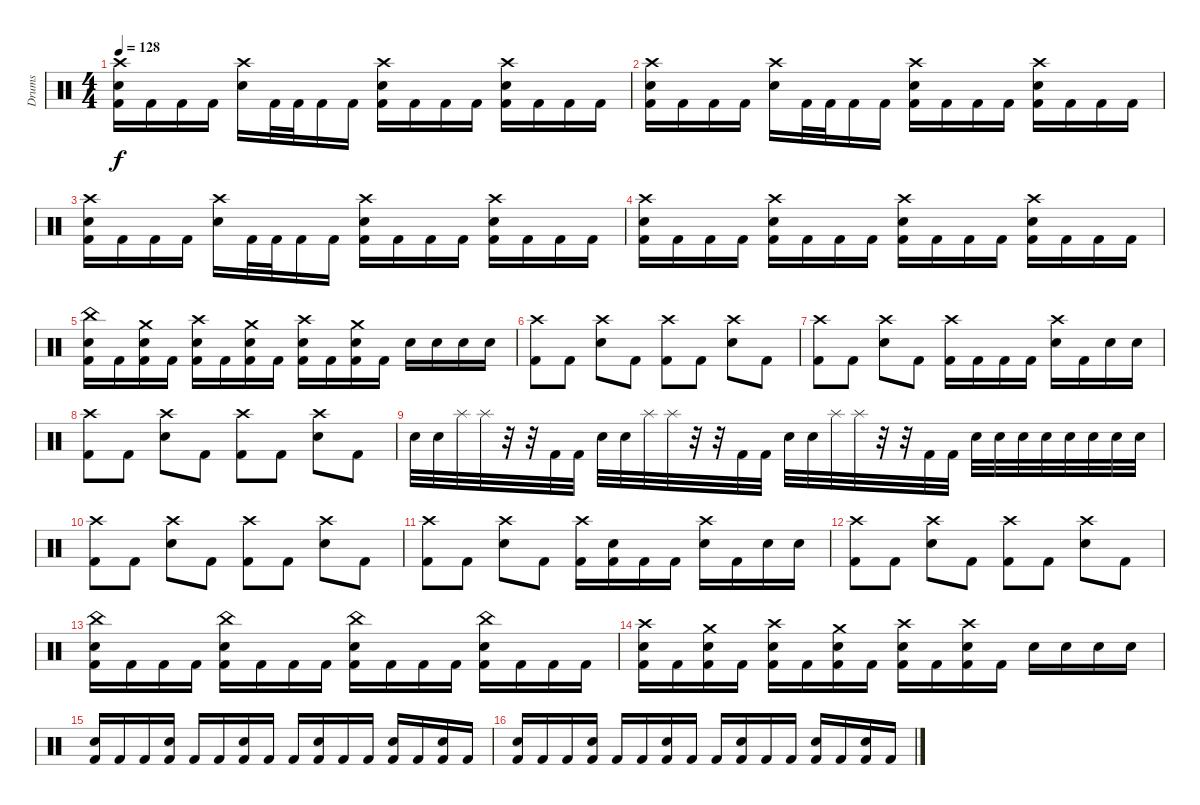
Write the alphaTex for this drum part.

\track ("Drums" "Drums") {instrument percussion}
\staff {score}
\articulation defaults
\ts (4 4)
\tempo 128
\clef neutral
\ks c
("Crash high (hit)" "Electric Snare (hit)" "Kick (hit) 2").16{dy f} "Kick (hit) 2".16 "Kick (hit) 2".16 "Kick (hit) 2".16 ("Crash high (hit)" "Electric Snare (hit)").16 "Kick (hit) 2".32 "Kick (hit) 2".32 "Kick (hit) 2".16 "Kick (hit) 2".16 ("Crash high (hit)" "Electric Snare (hit)" "Kick (hit) 2").16 "Kick (hit) 2".16 "Kick (hit) 2".16 "Kick (hit) 2".16 ("Crash high (hit)" "Electric Snare (hit)" "Kick (hit) 2").16 "Kick (hit) 2".16 "Kick (hit) 2".16 "Kick (hit) 2".16 |
("Crash high (hit)" "Electric Snare (hit)" "Kick (hit) 2").16 "Kick (hit) 2".16 "Kick (hit) 2".16 "Kick (hit) 2".16 ("Crash high (hit)" "Electric Snare (hit)").16 "Kick (hit) 2".32 "Kick (hit) 2".32 "Kick (hit) 2".16 "Kick (hit) 2".16 ("Crash high (hit)" "Electric Snare (hit)" "Kick (hit) 2").16 "Kick (hit) 2".16 "Kick (hit) 2".16 "Kick (hit) 2".16 ("Crash high (hit)" "Electric Snare (hit)" "Kick (hit) 2").16 "Kick (hit) 2".16 "Kick (hit) 2".16 "Kick (hit) 2".16 |
("Crash high (hit)" "Electric Snare (hit)" "Kick (hit) 2").16 "Kick (hit) 2".16 "Kick (hit) 2".16 "Kick (hit) 2".16 ("Crash high (hit)" "Electric Snare (hit)").16 "Kick (hit) 2".32 "Kick (hit) 2".32 "Kick (hit) 2".16 "Kick (hit) 2".16 ("Crash high (hit)" "Electric Snare (hit)" "Kick (hit) 2").16 "Kick (hit) 2".16 "Kick (hit) 2".16 "Kick (hit) 2".16 ("Crash high (hit)" "Electric Snare (hit)" "Kick (hit) 2").16 "Kick (hit) 2".16 "Kick (hit) 2".16 "Kick (hit) 2".16 |
("Crash high (hit)" "Electric Snare (hit)" "Kick (hit) 2").16 "Kick (hit) 2".16 "Kick (hit) 2".16 "Kick (hit) 2".16 ("Crash high (hit)" "Electric Snare (hit)" "Kick (hit) 2").16 "Kick (hit) 2".16 "Kick (hit) 2".16 "Kick (hit) 2".16 ("Crash high (hit)" "Electric Snare (hit)" "Kick (hit) 2").16 "Kick (hit) 2".16 "Kick (hit) 2".16 "Kick (hit) 2".16 ("Crash high (hit)" "Electric Snare (hit)" "Kick (hit) 2").16 "Kick (hit) 2".16 "Kick (hit) 2".16 "Kick (hit) 2".16 |
("China (hit)" "Electric Snare (hit)" "Kick (hit) 2").16 "Kick (hit) 2".16 ("Crash medium (hit)" "Electric Snare (hit)" "Kick (hit) 2").16 "Kick (hit) 2".16 ("Crash high (hit)" "Electric Snare (hit)" "Kick (hit) 2").16 "Kick (hit) 2".16 ("Crash medium (hit)" "Electric Snare (hit)" "Kick (hit) 2").16 "Kick (hit) 2".16 ("Crash high (hit)" "Electric Snare (hit)" "Kick (hit) 2").16 "Kick (hit) 2".16 ("Crash medium (hit)" "Electric Snare (hit)" "Kick (hit) 2").16 "Kick (hit) 2".16 "Electric Snare (hit)".16 "Electric Snare (hit)".16 "Electric Snare (hit)".16 "Electric Snare (hit)".16 |
("Crash high (hit)" "Kick (hit) 2").8 "Kick (hit) 2".8 ("Crash high (hit)" "Electric Snare (hit)").8 "Kick (hit) 2".8 ("Crash high (hit)" "Kick (hit) 2").8 "Kick (hit) 2".8 ("Crash high (hit)" "Electric Snare (hit)").8 "Kick (hit) 2".8 |
("Crash high (hit)" "Kick (hit) 2").8 "Kick (hit) 2".8 ("Crash high (hit)" "Electric Snare (hit)").8 "Kick (hit) 2".8 ("Crash high (hit)" "Kick (hit) 2").16 "Kick (hit) 2".16 "Kick (hit) 2".16 "Kick (hit) 2".16 ("Crash high (hit)" "Electric Snare (hit)").16 "Kick (hit) 2".16 "Electric Snare (hit)".16 "Electric Snare (hit)".16 |
("Crash high (hit)" "Kick (hit) 2").8 "Kick (hit) 2".8 ("Crash high (hit)" "Electric Snare (hit)").8 "Kick (hit) 2".8 ("Crash high (hit)" "Kick (hit) 2").8 "Kick (hit) 2".8 ("Crash high (hit)" "Electric Snare (hit)").8 "Kick (hit) 2".8 |
"Electric Snare (hit)".32 "Electric Snare (hit)".32 "Splash (hit)".32 "Splash (hit)".32 r.32 r.32 "Kick (hit) 2".32 "Kick (hit) 2".32 "Electric Snare (hit)".32 "Electric Snare (hit)".32 "Splash (hit)".32 "Splash (hit)".32 r.32 r.32 "Kick (hit) 2".32 "Kick (hit) 2".32 "Electric Snare (hit)".32 "Electric Snare (hit)".32 "Splash (hit)".32 "Splash (hit)".32 r.32 r.32 "Kick (hit) 2".32 "Kick (hit) 2".32 "Electric Snare (hit)".32 "Electric Snare (hit)".32 "Electric Snare (hit)".32 "Electric Snare (hit)".32 "Electric Snare (hit)".32 "Electric Snare (hit)".32 "Electric Snare (hit)".32 "Electric Snare (hit)".32 |
("Crash high (hit)" "Kick (hit) 2").8 "Kick (hit) 2".8 ("Crash high (hit)" "Electric Snare (hit)").8 "Kick (hit) 2".8 ("Crash high (hit)" "Kick (hit) 2").8 "Kick (hit) 2".8 ("Crash high (hit)" "Electric Snare (hit)").8 "Kick (hit) 2".8 |
("Crash high (hit)" "Kick (hit) 2").8 "Kick (hit) 2".8 ("Crash high (hit)" "Electric Snare (hit)").8 "Kick (hit) 2".8 ("Crash high (hit)" "Kick (hit) 2").16 ("Electric Snare (hit)" "Kick (hit) 2").16 "Kick (hit) 2".16 "Kick (hit) 2".16 ("Crash high (hit)" "Electric Snare (hit)").16 "Kick (hit) 2".16 "Electric Snare (hit)".16 "Electric Snare (hit)".16 |
("Crash high (hit)" "Kick (hit) 2").8 "Kick (hit) 2".8 ("Crash high (hit)" "Electric Snare (hit)").8 "Kick (hit) 2".8 ("Crash high (hit)" "Kick (hit) 2").8 "Kick (hit) 2".8 ("Crash high (hit)" "Electric Snare (hit)").8 "Kick (hit) 2".8 |
("China (hit)" "Electric Snare (hit)" "Kick (hit) 2").16 "Kick (hit) 2".16 "Kick (hit) 2".16 "Kick (hit) 2".16 ("China (hit)" "Electric Snare (hit)" "Kick (hit) 2").16 "Kick (hit) 2".16 "Kick (hit) 2".16 "Kick (hit) 2".16 ("China (hit)" "Electric Snare (hit)" "Kick (hit) 2").16 "Kick (hit) 2".16 "Kick (hit) 2".16 "Kick (hit) 2".16 ("China (hit)" "Electric Snare (hit)" "Kick (hit) 2").16 "Kick (hit) 2".16 "Kick (hit) 2".16 "Kick (hit) 2".16 |
("Crash high (hit)" "Electric Snare (hit)" "Kick (hit) 2").16 "Kick (hit) 2".16 ("Crash medium (hit)" "Electric Snare (hit)" "Kick (hit) 2").16 "Kick (hit) 2".16 ("Crash high (hit)" "Electric Snare (hit)" "Kick (hit) 2").16 "Kick (hit) 2".16 ("Crash medium (hit)" "Electric Snare (hit)" "Kick (hit) 2").16 "Kick (hit) 2".16 ("Crash high (hit)" "Electric Snare (hit)" "Kick (hit) 2").16 "Kick (hit) 2".16 ("Crash high (hit)" "Electric Snare (hit)" "Kick (hit) 2").16 "Kick (hit) 2".16 "Electric Snare (hit)".16 "Electric Snare (hit)".16 "Electric Snare (hit)".16 "Electric Snare (hit)".16 |
("Electric Snare (hit)" "Kick (hit) 2").16 "Kick (hit) 2".16 "Kick (hit) 2".16 ("Electric Snare (hit)" "Kick (hit) 2").16 "Kick (hit) 2".16 "Kick (hit) 2".16 ("Electric Snare (hit)" "Kick (hit) 2").16 "Kick (hit) 2".16 "Kick (hit) 2".16 ("Electric Snare (hit)" "Kick (hit) 2").16 "Kick (hit) 2".16 "Kick (hit) 2".16 ("Electric Snare (hit)" "Kick (hit) 2").16 "Kick (hit) 2".16 ("Electric Snare (hit)" "Kick (hit) 2").16 "Kick (hit) 2".16 |
("Electric Snare (hit)" "Kick (hit) 2").16 "Kick (hit) 2".16 "Kick (hit) 2".16 ("Electric Snare (hit)" "Kick (hit) 2").16 "Kick (hit) 2".16 "Kick (hit) 2".16 ("Electric Snare (hit)" "Kick (hit) 2").16 "Kick (hit) 2".16 "Kick (hit) 2".16 ("Electric Snare (hit)" "Kick (hit) 2").16 "Kick (hit) 2".16 "Kick (hit) 2".16 ("Electric Snare (hit)" "Kick (hit) 2").16 "Kick (hit) 2".16 ("Electric Snare (hit)" "Kick (hit) 2").16 "Kick (hit) 2".16
